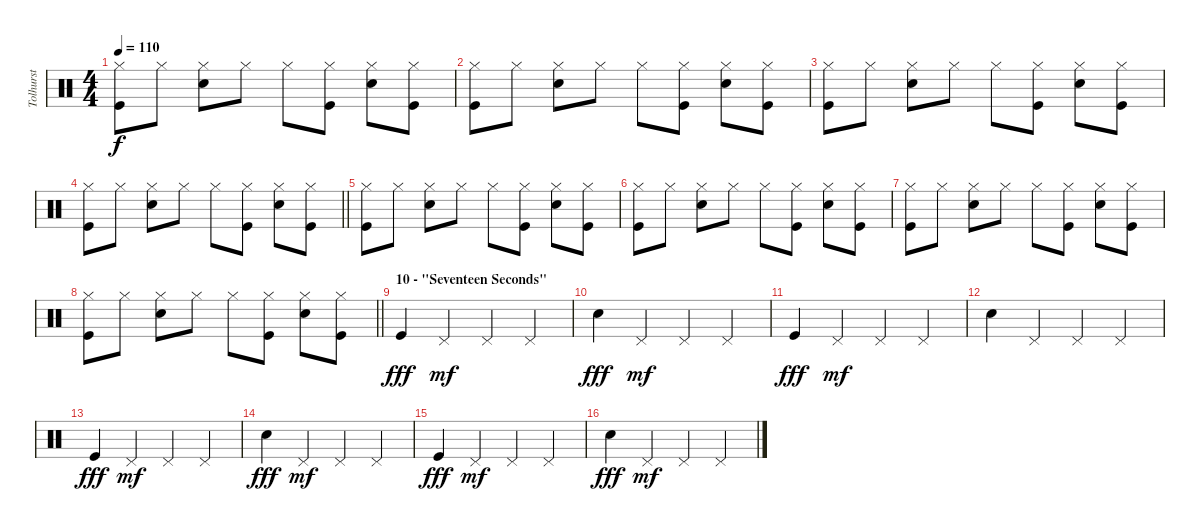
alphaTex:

\track ("Tolhurst" "Tolhurst") {instrument percussion}
\staff {score}
\articulation defaults
\ts (4 4)
\tempo 110
\clef neutral
\ks c
("Hi-Hat (closed)" "Kick (hit)").8{dy f} "Hi-Hat (closed)".8 ("Hi-Hat (closed)" "Electric Snare (hit)").8 "Hi-Hat (closed)".8 "Hi-Hat (closed)".8 ("Hi-Hat (closed)" "Kick (hit)").8 ("Hi-Hat (closed)" "Electric Snare (hit)").8 ("Hi-Hat (closed)" "Kick (hit)").8 |
("Hi-Hat (closed)" "Kick (hit)").8 "Hi-Hat (closed)".8 ("Hi-Hat (closed)" "Electric Snare (hit)").8 "Hi-Hat (closed)".8 "Hi-Hat (closed)".8 ("Hi-Hat (closed)" "Kick (hit)").8 ("Hi-Hat (closed)" "Electric Snare (hit)").8 ("Hi-Hat (closed)" "Kick (hit)").8 |
("Hi-Hat (closed)" "Kick (hit)").8 "Hi-Hat (closed)".8 ("Hi-Hat (closed)" "Electric Snare (hit)").8 "Hi-Hat (closed)".8 "Hi-Hat (closed)".8 ("Hi-Hat (closed)" "Kick (hit)").8 ("Hi-Hat (closed)" "Electric Snare (hit)").8 ("Hi-Hat (closed)" "Kick (hit)").8 |
\barLineRight lightlight
("Hi-Hat (closed)" "Kick (hit)").8 "Hi-Hat (closed)".8 ("Hi-Hat (closed)" "Electric Snare (hit)").8 "Hi-Hat (closed)".8 "Hi-Hat (closed)".8 ("Hi-Hat (closed)" "Kick (hit)").8 ("Hi-Hat (closed)" "Electric Snare (hit)").8 ("Hi-Hat (closed)" "Kick (hit)").8 |
("Hi-Hat (closed)" "Kick (hit)").8{volume 0} "Hi-Hat (closed)".8 ("Hi-Hat (closed)" "Electric Snare (hit)").8 "Hi-Hat (closed)".8 "Hi-Hat (closed)".8 ("Hi-Hat (closed)" "Kick (hit)").8 ("Hi-Hat (closed)" "Electric Snare (hit)").8 ("Hi-Hat (closed)" "Kick (hit)").8 |
("Hi-Hat (closed)" "Kick (hit)").8 "Hi-Hat (closed)".8 ("Hi-Hat (closed)" "Electric Snare (hit)").8 "Hi-Hat (closed)".8 "Hi-Hat (closed)".8 ("Hi-Hat (closed)" "Kick (hit)").8 ("Hi-Hat (closed)" "Electric Snare (hit)").8 ("Hi-Hat (closed)" "Kick (hit)").8 |
("Hi-Hat (closed)" "Kick (hit)").8 "Hi-Hat (closed)".8 ("Hi-Hat (closed)" "Electric Snare (hit)").8 "Hi-Hat (closed)".8 "Hi-Hat (closed)".8 ("Hi-Hat (closed)" "Kick (hit)").8 ("Hi-Hat (closed)" "Electric Snare (hit)").8 ("Hi-Hat (closed)" "Kick (hit)").8 |
\barLineRight lightlight
("Hi-Hat (closed)" "Kick (hit)").8 "Hi-Hat (closed)".8 ("Hi-Hat (closed)" "Electric Snare (hit)").8 "Hi-Hat (closed)".8 "Hi-Hat (closed)".8 ("Hi-Hat (closed)" "Kick (hit)").8 ("Hi-Hat (closed)" "Electric Snare (hit)").8 ("Hi-Hat (closed)" "Kick (hit)").8 |
\section ("" "10 - \"Seventeen Seconds\"")
"Kick (hit)".4{dy fff volume 13} "Pedal Hi-Hat (hit)".4{dy mf} "Pedal Hi-Hat (hit)".4 "Pedal Hi-Hat (hit)".4 |
"Electric Snare (hit)".4{dy fff} "Pedal Hi-Hat (hit)".4{dy mf} "Pedal Hi-Hat (hit)".4 "Pedal Hi-Hat (hit)".4 |
"Kick (hit)".4{dy fff} "Pedal Hi-Hat (hit)".4{dy mf} "Pedal Hi-Hat (hit)".4 "Pedal Hi-Hat (hit)".4 |
"Electric Snare (hit)".4 "Pedal Hi-Hat (hit)".4 "Pedal Hi-Hat (hit)".4 "Pedal Hi-Hat (hit)".4 |
"Kick (hit)".4{dy fff} "Pedal Hi-Hat (hit)".4{dy mf} "Pedal Hi-Hat (hit)".4 "Pedal Hi-Hat (hit)".4 |
"Electric Snare (hit)".4{dy fff} "Pedal Hi-Hat (hit)".4{dy mf} "Pedal Hi-Hat (hit)".4 "Pedal Hi-Hat (hit)".4 |
"Kick (hit)".4{dy fff} "Pedal Hi-Hat (hit)".4{dy mf} "Pedal Hi-Hat (hit)".4 "Pedal Hi-Hat (hit)".4 |
"Electric Snare (hit)".4{dy fff} "Pedal Hi-Hat (hit)".4{dy mf} "Pedal Hi-Hat (hit)".4 "Pedal Hi-Hat (hit)".4
